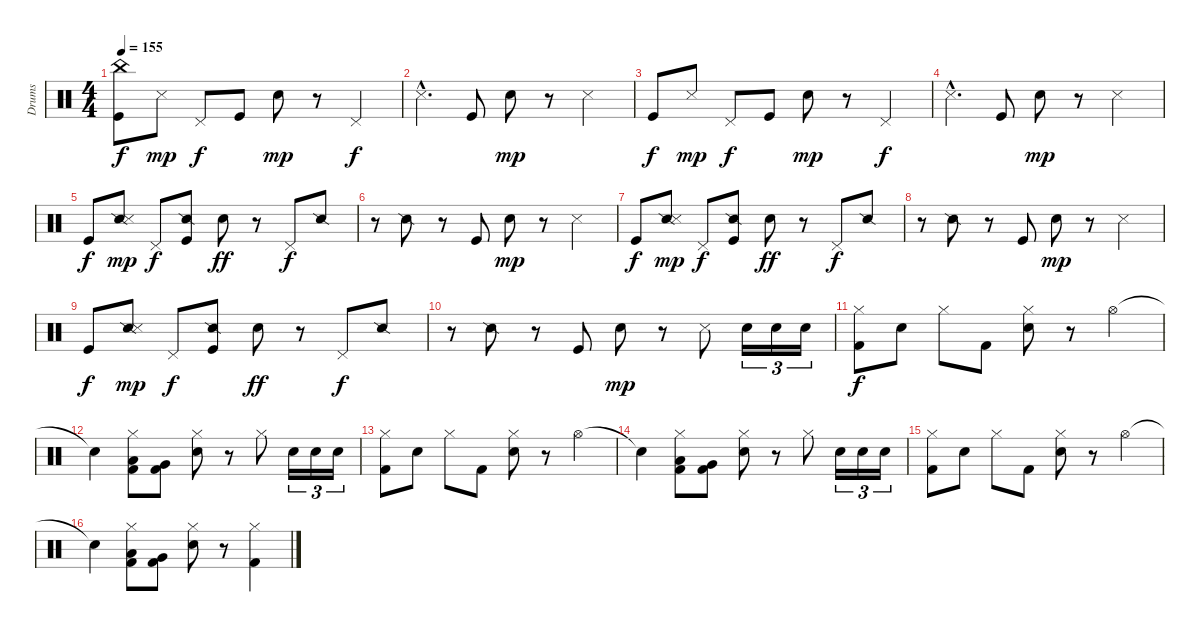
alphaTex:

\track ("Drums" "Drums") {instrument percussion}
\staff {score}
\articulation defaults
\ts (4 4)
\tempo 155
\clef neutral
\ks c
("China (hit)" "Kick (hit)").8{dy f} "Snare (side stick) 3".8{dy mp} "Pedal Hi-Hat (hit)".8{dy f} "Kick (hit)".8 "Electric Snare (hit)".8{dy mp} r.8 "Pedal Hi-Hat (hit)".4{dy f} |
"Snare (side stick) 3"{hac}.4{d} "Kick (hit)".8 "Electric Snare (hit)".8{dy mp} r.8 "Snare (side stick) 3".4 |
"Kick (hit)".8{dy f} "Snare (side stick) 3".8{dy mp} "Pedal Hi-Hat (hit)".8{dy f} "Kick (hit)".8 "Electric Snare (hit)".8{dy mp} r.8 "Pedal Hi-Hat (hit)".4{dy f} |
"Snare (side stick) 3"{hac}.4{d} "Kick (hit)".8 "Electric Snare (hit)".8{dy mp} r.8 "Snare (side stick) 3".4 |
"Kick (hit)".8{dy f} ("Snare (side stick) 2" "Snare (side stick) 3").8{dy mp} "Pedal Hi-Hat (hit)".8{dy f} ("Snare (side stick) 2" "Kick (hit)").8 "Electric Snare (hit)".8{dy ff} r.8 "Pedal Hi-Hat (hit)".8{dy f} "Snare (side stick) 2".8 |
r.8 "Snare (side stick) 2".8 r.8 "Kick (hit)".8 "Electric Snare (hit)".8{dy mp} r.8 "Snare (side stick) 3".4 |
"Kick (hit)".8{dy f} ("Snare (side stick) 2" "Snare (side stick) 3").8{dy mp} "Pedal Hi-Hat (hit)".8{dy f} ("Snare (side stick) 2" "Kick (hit)").8 "Electric Snare (hit)".8{dy ff} r.8 "Pedal Hi-Hat (hit)".8{dy f} "Snare (side stick) 2".8 |
r.8 "Snare (side stick) 2".8 r.8 "Kick (hit)".8 "Electric Snare (hit)".8{dy mp} r.8 "Snare (side stick) 3".4 |
"Kick (hit)".8{dy f} ("Snare (side stick) 2" "Snare (side stick) 3").8{dy mp} "Pedal Hi-Hat (hit)".8{dy f} ("Snare (side stick) 2" "Kick (hit)").8 "Electric Snare (hit)".8{dy ff} r.8 "Pedal Hi-Hat (hit)".8{dy f} "Snare (side stick) 2".8 |
r.8 "Snare (side stick) 2".8 r.8 "Kick (hit)".8 "Electric Snare (hit)".8{dy mp} r.8 "Snare (side stick) 3".8 "Electric Snare (hit)".16{tu (3 2)} "Electric Snare (hit)".16{tu (3 2)} "Electric Snare (hit)".16{tu (3 2)} |
("Hi-Hat (closed)" "Kick (hit) 2").8{dy f} "Electric Snare (hit)".8 "Hi-Hat (closed)".8 "Kick (hit) 2".8 ("Hi-Hat (closed)" "Electric Snare (hit)").8 r.8 "Hi-Hat (open)".4 |
"Snare (hit)"{t}.4 ("Hi-Hat (closed)" "Low Tom (hit)" "Kick (hit) 2").8 ("Very Low Tom (hit)" "Kick (hit) 2").8 ("Hi-Hat (closed)" "Electric Snare (hit)").8 r.8 "Hi-Hat (closed)".8 "Electric Snare (hit)".16{tu (3 2)} "Electric Snare (hit)".16{tu (3 2)} "Electric Snare (hit)".16{tu (3 2)} |
("Hi-Hat (closed)" "Kick (hit) 2").8 "Electric Snare (hit)".8 "Hi-Hat (closed)".8 "Kick (hit) 2".8 ("Hi-Hat (closed)" "Electric Snare (hit)").8 r.8 "Hi-Hat (open)".4 |
"Snare (hit)"{t}.4 ("Hi-Hat (closed)" "Low Tom (hit)" "Kick (hit) 2").8 ("Very Low Tom (hit)" "Kick (hit) 2").8 ("Hi-Hat (closed)" "Electric Snare (hit)").8 r.8 "Hi-Hat (closed)".8 "Electric Snare (hit)".16{tu (3 2)} "Electric Snare (hit)".16{tu (3 2)} "Electric Snare (hit)".16{tu (3 2)} |
("Hi-Hat (closed)" "Kick (hit) 2").8 "Electric Snare (hit)".8 "Hi-Hat (closed)".8 "Kick (hit) 2".8 ("Hi-Hat (closed)" "Electric Snare (hit)").8 r.8 "Hi-Hat (open)".4 |
"Snare (hit)"{t}.4 ("Hi-Hat (closed)" "Low Tom (hit)" "Kick (hit) 2").8 ("Very Low Tom (hit)" "Kick (hit) 2").8 ("Hi-Hat (closed)" "Electric Snare (hit)").8 r.8 ("Hi-Hat (closed)" "Kick (hit) 2").4
